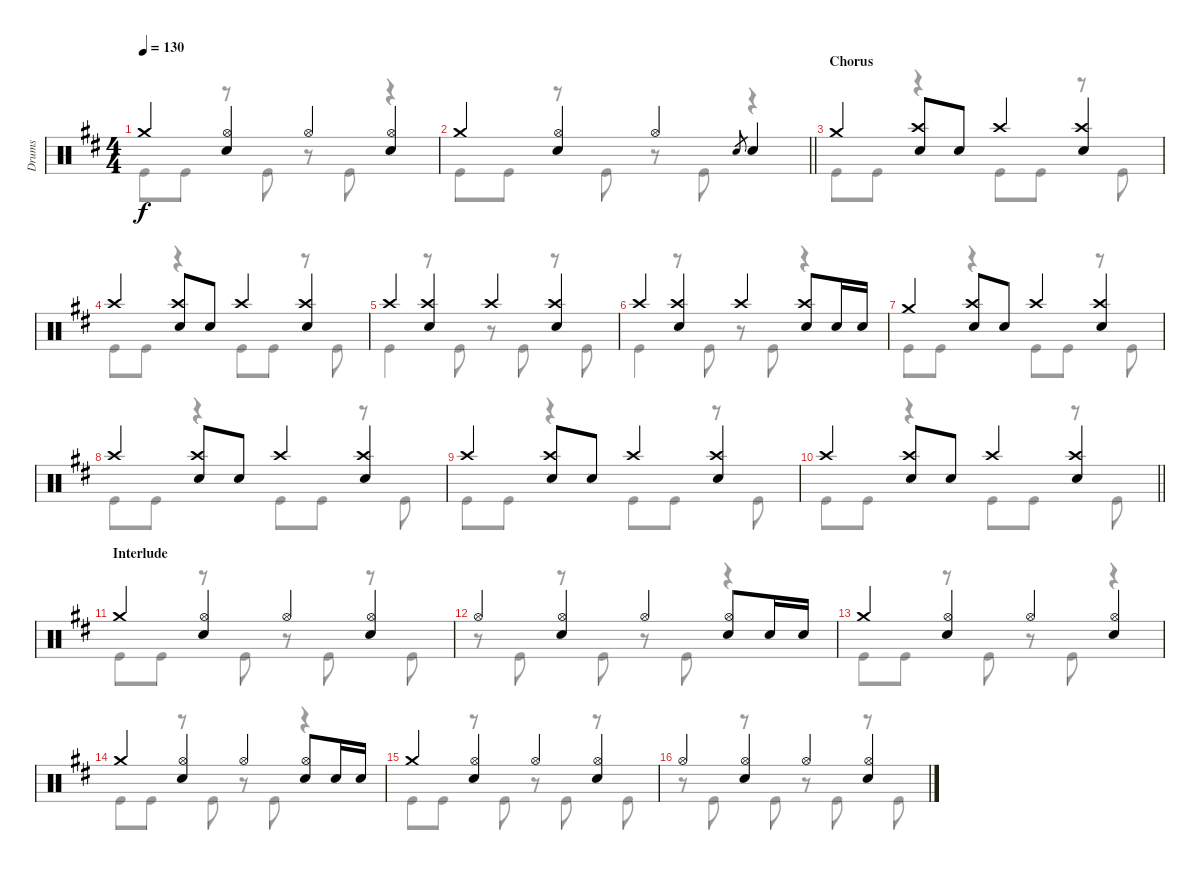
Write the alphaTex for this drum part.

\track ("Drums" "Drums") {instrument percussion}
\staff {score}
\articulation defaults
\voice
\ts (4 4)
\tempo 130
\clef neutral
\ks d "Crash medium (hit)".4{dy f}
("Hi-Hat (open)" "Electric Snare (hit)").4 "Hi-Hat (open)".4 ("Hi-Hat (open)" "Electric Snare (hit)").4 |
\barLineRight lightlight "Crash medium (hit)".4
("Hi-Hat (open)" "Electric Snare (hit)").4 "Hi-Hat (open)".4 "Electric Snare (hit)".8{gr} "Electric Snare (hit)".4 |
\section ("" "Chorus")
"Crash medium (hit)".4 ("Crash high (hit)" "Electric Snare (hit)").8 "Electric Snare (hit)".8 "Crash high (hit)".4 ("Crash high (hit)" "Electric Snare (hit)").4 |
"Crash high (hit)".4 ("Crash high (hit)" "Electric Snare (hit)").8 "Electric Snare (hit)".8 "Crash high (hit)".4 ("Crash high (hit)" "Electric Snare (hit)").4 |
"Crash high (hit)".4 ("Crash high (hit)" "Electric Snare (hit)").4 "Crash high (hit)".4 ("Crash high (hit)" "Electric Snare (hit)").4 |
"Crash high (hit)".4 ("Crash high (hit)" "Electric Snare (hit)").4 "Crash high (hit)".4 ("Crash high (hit)" "Electric Snare (hit)").8 "Electric Snare (hit)".16 "Electric Snare (hit)".16 |
"Crash medium (hit)".4 ("Crash high (hit)" "Electric Snare (hit)").8 "Electric Snare (hit)".8 "Crash high (hit)".4 ("Crash high (hit)" "Electric Snare (hit)").4 |
"Crash high (hit)".4 ("Crash high (hit)" "Electric Snare (hit)").8 "Electric Snare (hit)".8 "Crash high (hit)".4 ("Crash high (hit)" "Electric Snare (hit)").4 |
"Crash high (hit)".4 ("Crash high (hit)" "Electric Snare (hit)").8 "Electric Snare (hit)".8 "Crash high (hit)".4 ("Crash high (hit)" "Electric Snare (hit)").4 |
\barLineRight lightlight "Crash high (hit)".4
("Crash high (hit)" "Electric Snare (hit)").8 "Electric Snare (hit)".8 "Crash high (hit)".4 ("Crash high (hit)" "Electric Snare (hit)").4 |
\section ("" "Interlude")
"Crash medium (hit)".4 ("Hi-Hat (open)" "Electric Snare (hit)").4 "Hi-Hat (open)".4 ("Hi-Hat (open)" "Electric Snare (hit)").4 |
"Hi-Hat (open)".4 ("Hi-Hat (open)" "Electric Snare (hit)").4 "Hi-Hat (open)".4 ("Hi-Hat (open)" "Electric Snare (hit)").8 "Electric Snare (hit)".16 "Electric Snare (hit)".16 |
"Crash medium (hit)".4 ("Hi-Hat (open)" "Electric Snare (hit)").4 "Hi-Hat (open)".4 ("Hi-Hat (open)" "Electric Snare (hit)").4 |
"Crash medium (hit)".4 ("Hi-Hat (open)" "Electric Snare (hit)").4 "Hi-Hat (open)".4 ("Hi-Hat (open)" "Electric Snare (hit)").8 "Electric Snare (hit)".16 "Electric Snare (hit)".16 |
"Crash medium (hit)".4 ("Hi-Hat (open)" "Electric Snare (hit)").4 "Hi-Hat (open)".4 ("Hi-Hat (open)" "Electric Snare (hit)").4 |
"Hi-Hat (open)".4 ("Hi-Hat (open)" "Electric Snare (hit)").4 "Hi-Hat (open)".4 ("Hi-Hat (open)" "Electric Snare (hit)").4
\voice
\clef neutral
\ottava regular
\simile none
\ks d "Kick (hit)".8{dy f} "Kick (hit)".8
r.8 "Kick (hit)".8 r.8 "Kick (hit)".8 r.4 |
\barLineRight lightlight "Kick (hit)".8 "Kick (hit)".8
r.8 "Kick (hit)".8 r.8 "Kick (hit)".8 r.4 |
"Kick (hit)".8 "Kick (hit)".8 r.4 "Kick (hit)".8 "Kick (hit)".8 r.8 "Kick (hit)".8 |
"Kick (hit)".8 "Kick (hit)".8 r.4 "Kick (hit)".8 "Kick (hit)".8 r.8 "Kick (hit)".8 |
"Kick (hit)".4 r.8 "Kick (hit)".8 r.8 "Kick (hit)".8 r.8 "Kick (hit)".8 |
"Kick (hit)".4 r.8 "Kick (hit)".8 r.8 "Kick (hit)".8 r.4 |
"Kick (hit)".8 "Kick (hit)".8 r.4 "Kick (hit)".8 "Kick (hit)".8 r.8 "Kick (hit)".8 |
"Kick (hit)".8 "Kick (hit)".8 r.4 "Kick (hit)".8 "Kick (hit)".8 r.8 "Kick (hit)".8 |
"Kick (hit)".8 "Kick (hit)".8 r.4 "Kick (hit)".8 "Kick (hit)".8 r.8 "Kick (hit)".8 |
\barLineRight lightlight "Kick (hit)".8 "Kick (hit)".8
r.4 "Kick (hit)".8 "Kick (hit)".8 r.8 "Kick (hit)".8 |
"Kick (hit)".8 "Kick (hit)".8 r.8 "Kick (hit)".8 r.8 "Kick (hit)".8 r.8 "Kick (hit)".8 |
r.8 "Kick (hit)".8 r.8 "Kick (hit)".8 r.8 "Kick (hit)".8 r.4 |
"Kick (hit)".8 "Kick (hit)".8 r.8 "Kick (hit)".8 r.8 "Kick (hit)".8 r.4 |
"Kick (hit)".8 "Kick (hit)".8 r.8 "Kick (hit)".8 r.8 "Kick (hit)".8 r.4 |
"Kick (hit)".8 "Kick (hit)".8 r.8 "Kick (hit)".8 r.8 "Kick (hit)".8 r.8 "Kick (hit)".8 |
r.8 "Kick (hit)".8 r.8 "Kick (hit)".8 r.8 "Kick (hit)".8 r.8 "Kick (hit)".8
